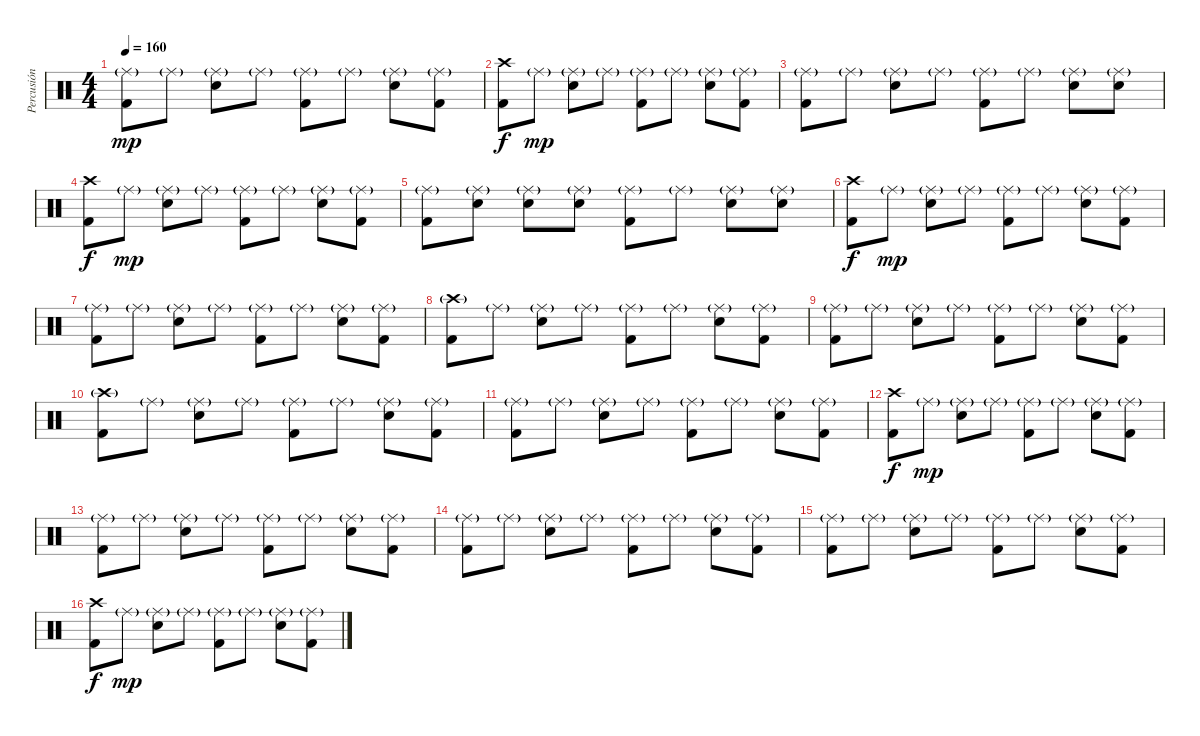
\track ("Percusión" "Percusión") {instrument percussion}
\staff {score}
\articulation defaults
\ts (4 4)
\tempo 160
\clef neutral
\ks c
("Ride (middle)"{g} "Kick (hit) 2").8{dy mp} "Ride (middle)"{g}.8 ("Ride (middle)"{g} "Electric Snare (hit)").8 "Ride (middle)"{g}.8 ("Ride (middle)"{g} "Kick (hit) 2").8 "Ride (middle)"{g}.8 ("Ride (middle)"{g} "Electric Snare (hit)").8 ("Ride (middle)"{g} "Kick (hit) 2").8 |
("Crash high (hit)" "Kick (hit) 2").8{dy f} "Ride (middle)"{g}.8{dy mp} ("Ride (middle)"{g} "Electric Snare (hit)").8 "Ride (middle)"{g}.8 ("Ride (middle)"{g} "Kick (hit) 2").8 "Ride (middle)"{g}.8 ("Ride (middle)"{g} "Electric Snare (hit)").8 ("Ride (middle)"{g} "Kick (hit) 2").8 |
("Ride (middle)"{g} "Kick (hit) 2").8 "Ride (middle)"{g}.8 ("Ride (middle)"{g} "Electric Snare (hit)").8 "Ride (middle)"{g}.8 ("Ride (middle)"{g} "Kick (hit) 2").8 "Ride (middle)"{g}.8 ("Ride (middle)"{g} "Electric Snare (hit)").8 ("Ride (middle)"{g} "Electric Snare (hit)").8 |
("Crash high (hit)" "Kick (hit) 2").8{dy f} "Ride (middle)"{g}.8{dy mp} ("Ride (middle)"{g} "Electric Snare (hit)").8 "Ride (middle)"{g}.8 ("Ride (middle)"{g} "Kick (hit) 2").8 "Ride (middle)"{g}.8 ("Ride (middle)"{g} "Electric Snare (hit)").8 ("Ride (middle)"{g} "Kick (hit) 2").8 |
("Ride (middle)"{g} "Kick (hit) 2").8 ("Ride (middle)"{g} "Electric Snare (hit)").8 ("Ride (middle)"{g} "Electric Snare (hit)").8 ("Ride (middle)"{g} "Electric Snare (hit)").8 ("Ride (middle)"{g} "Kick (hit) 2").8 "Ride (middle)"{g}.8 ("Ride (middle)"{g} "Electric Snare (hit)").8 ("Ride (middle)"{g} "Electric Snare (hit)").8 |
("Crash high (hit)" "Kick (hit) 2").8{dy f} "Ride (middle)"{g}.8{dy mp} ("Ride (middle)"{g} "Electric Snare (hit)").8 "Ride (middle)"{g}.8 ("Ride (middle)"{g} "Kick (hit) 2").8 "Ride (middle)"{g}.8 ("Ride (middle)"{g} "Electric Snare (hit)").8 ("Ride (middle)"{g} "Kick (hit) 2").8 |
("Ride (middle)"{g} "Kick (hit) 2").8 "Ride (middle)"{g}.8 ("Ride (middle)"{g} "Electric Snare (hit)").8 "Ride (middle)"{g}.8 ("Ride (middle)"{g} "Kick (hit) 2").8 "Ride (middle)"{g}.8 ("Ride (middle)"{g} "Electric Snare (hit)").8 ("Ride (middle)"{g} "Kick (hit) 2").8 |
("Crash high (hit)"{g} "Kick (hit) 2").8 "Ride (middle)"{g}.8 ("Ride (middle)"{g} "Electric Snare (hit)").8 "Ride (middle)"{g}.8 ("Ride (middle)"{g} "Kick (hit) 2").8 "Ride (middle)"{g}.8 ("Ride (middle)"{g} "Electric Snare (hit)").8 ("Ride (middle)"{g} "Kick (hit) 2").8 |
("Ride (middle)"{g} "Kick (hit) 2").8 "Ride (middle)"{g}.8 ("Ride (middle)"{g} "Electric Snare (hit)").8 "Ride (middle)"{g}.8 ("Ride (middle)"{g} "Kick (hit) 2").8 "Ride (middle)"{g}.8 ("Ride (middle)"{g} "Electric Snare (hit)").8 ("Ride (middle)"{g} "Kick (hit) 2").8 |
("Crash high (hit)"{g} "Kick (hit) 2").8 "Ride (middle)"{g}.8 ("Ride (middle)"{g} "Electric Snare (hit)").8 "Ride (middle)"{g}.8 ("Ride (middle)"{g} "Kick (hit) 2").8 "Ride (middle)"{g}.8 ("Ride (middle)"{g} "Electric Snare (hit)").8 ("Ride (middle)"{g} "Kick (hit) 2").8 |
("Ride (middle)"{g} "Kick (hit) 2").8 "Ride (middle)"{g}.8 ("Ride (middle)"{g} "Electric Snare (hit)").8 "Ride (middle)"{g}.8 ("Ride (middle)"{g} "Kick (hit) 2").8 "Ride (middle)"{g}.8 ("Ride (middle)"{g} "Electric Snare (hit)").8 ("Ride (middle)"{g} "Kick (hit) 2").8 |
("Crash high (hit)" "Kick (hit) 2").8{dy f} "Ride (middle)"{g}.8{dy mp} ("Ride (middle)"{g} "Electric Snare (hit)").8 "Ride (middle)"{g}.8 ("Ride (middle)"{g} "Kick (hit) 2").8 "Ride (middle)"{g}.8 ("Ride (middle)"{g} "Electric Snare (hit)").8 ("Ride (middle)"{g} "Kick (hit) 2").8 |
("Ride (middle)"{g} "Kick (hit) 2").8 "Ride (middle)"{g}.8 ("Ride (middle)"{g} "Electric Snare (hit)").8 "Ride (middle)"{g}.8 ("Ride (middle)"{g} "Kick (hit) 2").8 "Ride (middle)"{g}.8 ("Ride (middle)"{g} "Electric Snare (hit)").8 ("Ride (middle)"{g} "Kick (hit) 2").8 |
("Ride (middle)"{g} "Kick (hit) 2").8 "Ride (middle)"{g}.8 ("Ride (middle)"{g} "Electric Snare (hit)").8 "Ride (middle)"{g}.8 ("Ride (middle)"{g} "Kick (hit) 2").8 "Ride (middle)"{g}.8 ("Ride (middle)"{g} "Electric Snare (hit)").8 ("Ride (middle)"{g} "Kick (hit) 2").8 |
("Ride (middle)"{g} "Kick (hit) 2").8 "Ride (middle)"{g}.8 ("Ride (middle)"{g} "Electric Snare (hit)").8 "Ride (middle)"{g}.8 ("Ride (middle)"{g} "Kick (hit) 2").8 "Ride (middle)"{g}.8 ("Ride (middle)"{g} "Electric Snare (hit)").8 ("Ride (middle)"{g} "Kick (hit) 2").8 |
("Crash high (hit)" "Kick (hit) 2").8{dy f} "Ride (middle)"{g}.8{dy mp} ("Ride (middle)"{g} "Electric Snare (hit)").8 "Ride (middle)"{g}.8 ("Ride (middle)"{g} "Kick (hit) 2").8 "Ride (middle)"{g}.8 ("Ride (middle)"{g} "Electric Snare (hit)").8 ("Ride (middle)"{g} "Kick (hit) 2").8
